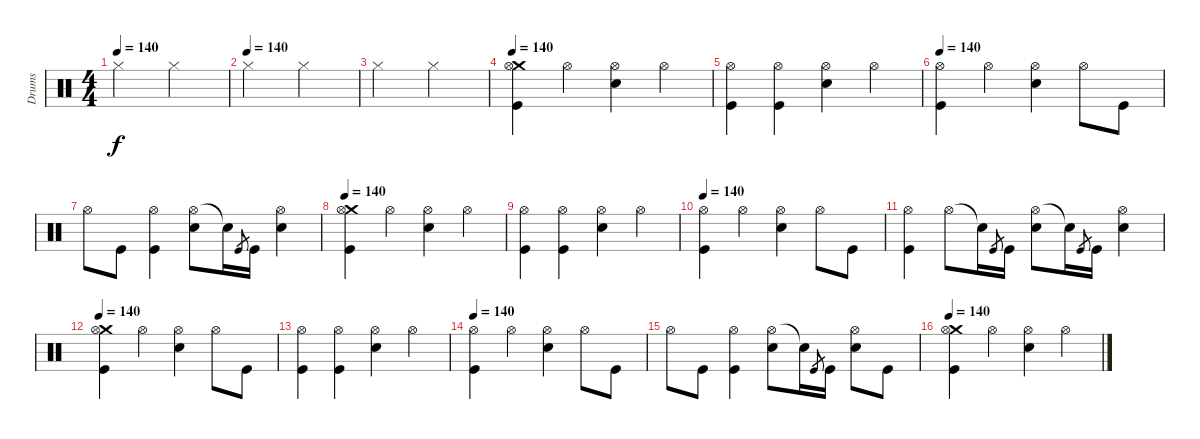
\track ("Drums" "Drums") {instrument percussion}
\staff {score}
\articulation defaults
\ts (4 4)
\tempo 140
\clef neutral
\ks c "Hi-Hat (closed)".2{dy f} "Hi-Hat (closed)".2
|
\tempo (140)
"Hi-Hat (closed)".2 "Hi-Hat (closed)".2 |
"Hi-Hat (closed)".2 "Hi-Hat (closed)".2 |
\tempo 140
("Crash medium (hit)" "Hi-Hat (open)" "Kick (hit)").4 "Hi-Hat (open)".4 ("Hi-Hat (open)" "Electric Snare (hit)").4 "Hi-Hat (open)".4 |
("Hi-Hat (open)" "Kick (hit)").4 ("Hi-Hat (open)" "Kick (hit)").4 ("Hi-Hat (open)" "Electric Snare (hit)").4 "Hi-Hat (open)".4 |
\tempo 140
("Hi-Hat (open)" "Kick (hit)").4 "Hi-Hat (open)".4 ("Hi-Hat (open)" "Electric Snare (hit)").4 "Hi-Hat (open)".8 "Kick (hit)".8 |
"Hi-Hat (open)".8 "Kick (hit)".8 ("Hi-Hat (open)" "Kick (hit)").4 ("Hi-Hat (open)" "Electric Snare (hit)").8 "Snare (hit)"{t}.16 "Kick (hit)".8{gr} "Kick (hit)".16 ("Hi-Hat (open)" "Electric Snare (hit)").4 |
\tempo 140
("Crash medium (hit)" "Hi-Hat (open)" "Kick (hit)").4 "Hi-Hat (open)".4 ("Hi-Hat (open)" "Electric Snare (hit)").4 "Hi-Hat (open)".4 |
("Hi-Hat (open)" "Kick (hit)").4 ("Hi-Hat (open)" "Kick (hit)").4 ("Hi-Hat (open)" "Electric Snare (hit)").4 "Hi-Hat (open)".4 |
\tempo 140
("Hi-Hat (open)" "Kick (hit)").4 "Hi-Hat (open)".4 ("Hi-Hat (open)" "Electric Snare (hit)").4 "Hi-Hat (open)".8 "Kick (hit)".8 |
("Hi-Hat (open)" "Kick (hit)").4 "Hi-Hat (open)".8 "Snare (hit)"{t}.16 "Kick (hit)".8{gr} "Kick (hit)".16 ("Hi-Hat (open)" "Electric Snare (hit)").8 "Snare (hit)"{t}.16 "Kick (hit)".8{gr} "Kick (hit)".16 ("Hi-Hat (open)" "Electric Snare (hit)").4 |
\tempo 140
("Crash medium (hit)" "Hi-Hat (open)" "Kick (hit)").4 "Hi-Hat (open)".4 ("Hi-Hat (open)" "Electric Snare (hit)").4 "Hi-Hat (open)".8 "Kick (hit)".8 |
("Hi-Hat (open)" "Kick (hit)").4 ("Hi-Hat (open)" "Kick (hit)").4 ("Hi-Hat (open)" "Electric Snare (hit)").4 "Hi-Hat (open)".4 |
\tempo 140
("Hi-Hat (open)" "Kick (hit)").4 "Hi-Hat (open)".4 ("Hi-Hat (open)" "Electric Snare (hit)").4 "Hi-Hat (open)".8 "Kick (hit)".8 |
"Hi-Hat (open)".8 "Kick (hit)".8 ("Hi-Hat (open)" "Kick (hit)").4 ("Hi-Hat (open)" "Electric Snare (hit)").8 "Snare (hit)"{t}.16 "Kick (hit)".8{gr} "Kick (hit)".16 ("Hi-Hat (open)" "Electric Snare (hit)").8 "Kick (hit)".8 |
\tempo 140
("Crash medium (hit)" "Hi-Hat (open)" "Kick (hit)").4 "Hi-Hat (open)".4 ("Hi-Hat (open)" "Electric Snare (hit)").4 "Hi-Hat (open)".4
